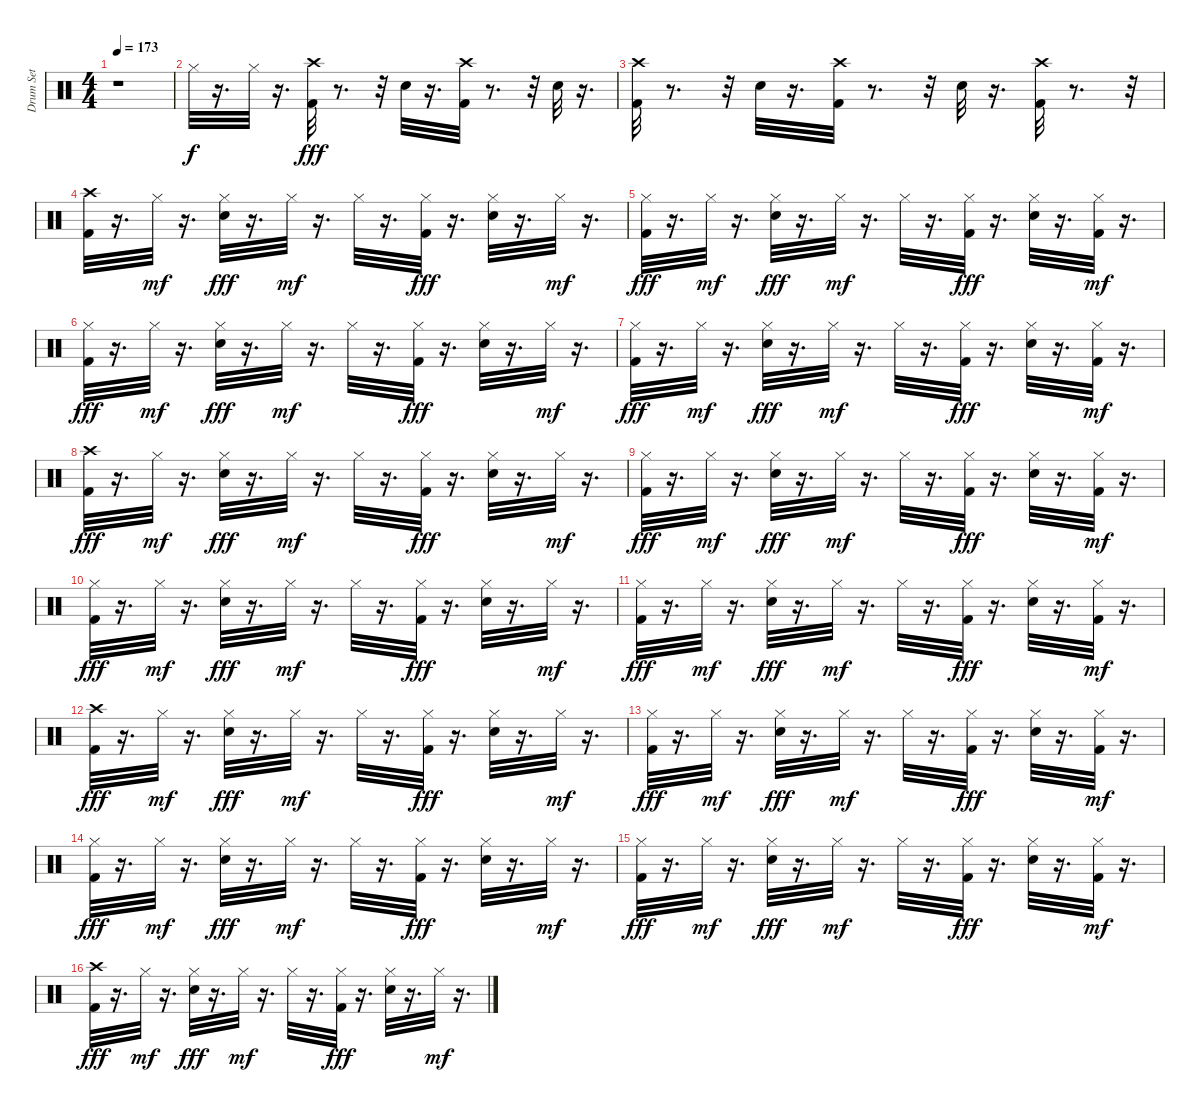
\track ("Drum Set" "Drum Set") {instrument percussion}
\staff {score}
\articulation defaults
\ts (4 4)
\tempo 173
\clef neutral
\ks c
r.1{dy fff} |
"Hi-Hat (closed)".32{dy f} r.16{d} "Hi-Hat (closed)".32 r.16{d} ("Crash high (hit)" "Kick (hit) 2").32{dy fff} r.8{d} r.32 "Electric Snare (hit)".32 r.16{d} ("Crash high (hit)" "Kick (hit) 2").32 r.8{d} r.32 "Electric Snare (hit)".32 r.16{d} |
("Crash high (hit)" "Kick (hit) 2").32 r.8{d} r.32 "Electric Snare (hit)".32 r.16{d} ("Crash high (hit)" "Kick (hit) 2").32 r.8{d} r.32 "Electric Snare (hit)".32 r.16{d} ("Crash high (hit)" "Kick (hit) 2").32 r.8{d} r.32 |
("Crash high (hit)" "Kick (hit) 2").32 r.16{d} "Hi-Hat (closed)".32{dy mf} r.16{d} ("Hi-Hat (closed)" "Electric Snare (hit)").32{dy fff} r.16{d} "Hi-Hat (closed)".32{dy mf} r.16{d} "Hi-Hat (closed)".32 r.16{d} ("Hi-Hat (closed)" "Kick (hit) 2").32{dy fff} r.16{d} ("Hi-Hat (closed)" "Electric Snare (hit)").32 r.16{d} "Hi-Hat (closed)".32{dy mf} r.16{d} |
("Hi-Hat (closed)" "Kick (hit) 2").32{dy fff} r.16{d} "Hi-Hat (closed)".32{dy mf} r.16{d} ("Hi-Hat (closed)" "Electric Snare (hit)").32{dy fff} r.16{d} "Hi-Hat (closed)".32{dy mf} r.16{d} "Hi-Hat (closed)".32 r.16{d} ("Hi-Hat (closed)" "Kick (hit) 2").32{dy fff} r.16{d} ("Hi-Hat (closed)" "Electric Snare (hit)").32 r.16{d} ("Kick (hit) 2" "Hi-Hat (closed)").32{dy mf} r.16{d} |
("Hi-Hat (closed)" "Kick (hit) 2").32{dy fff} r.16{d} "Hi-Hat (closed)".32{dy mf} r.16{d} ("Hi-Hat (closed)" "Electric Snare (hit)").32{dy fff} r.16{d} "Hi-Hat (closed)".32{dy mf} r.16{d} "Hi-Hat (closed)".32 r.16{d} ("Hi-Hat (closed)" "Kick (hit) 2").32{dy fff} r.16{d} ("Hi-Hat (closed)" "Electric Snare (hit)").32 r.16{d} "Hi-Hat (closed)".32{dy mf} r.16{d} |
("Hi-Hat (closed)" "Kick (hit) 2").32{dy fff} r.16{d} "Hi-Hat (closed)".32{dy mf} r.16{d} ("Hi-Hat (closed)" "Electric Snare (hit)").32{dy fff} r.16{d} "Hi-Hat (closed)".32{dy mf} r.16{d} "Hi-Hat (closed)".32 r.16{d} ("Hi-Hat (closed)" "Kick (hit) 2").32{dy fff} r.16{d} ("Hi-Hat (closed)" "Electric Snare (hit)").32 r.16{d} ("Kick (hit) 2" "Hi-Hat (closed)").32{dy mf} r.16{d} |
("Crash high (hit)" "Kick (hit) 2").32{dy fff} r.16{d} "Hi-Hat (closed)".32{dy mf} r.16{d} ("Hi-Hat (closed)" "Electric Snare (hit)").32{dy fff} r.16{d} "Hi-Hat (closed)".32{dy mf} r.16{d} "Hi-Hat (closed)".32 r.16{d} ("Hi-Hat (closed)" "Kick (hit) 2").32{dy fff} r.16{d} ("Hi-Hat (closed)" "Electric Snare (hit)").32 r.16{d} "Hi-Hat (closed)".32{dy mf} r.16{d} |
("Hi-Hat (closed)" "Kick (hit) 2").32{dy fff} r.16{d} "Hi-Hat (closed)".32{dy mf} r.16{d} ("Hi-Hat (closed)" "Electric Snare (hit)").32{dy fff} r.16{d} "Hi-Hat (closed)".32{dy mf} r.16{d} "Hi-Hat (closed)".32 r.16{d} ("Hi-Hat (closed)" "Kick (hit) 2").32{dy fff} r.16{d} ("Hi-Hat (closed)" "Electric Snare (hit)").32 r.16{d} ("Kick (hit) 2" "Hi-Hat (closed)").32{dy mf} r.16{d} |
("Hi-Hat (closed)" "Kick (hit) 2").32{dy fff} r.16{d} "Hi-Hat (closed)".32{dy mf} r.16{d} ("Hi-Hat (closed)" "Electric Snare (hit)").32{dy fff} r.16{d} "Hi-Hat (closed)".32{dy mf} r.16{d} "Hi-Hat (closed)".32 r.16{d} ("Hi-Hat (closed)" "Kick (hit) 2").32{dy fff} r.16{d} ("Hi-Hat (closed)" "Electric Snare (hit)").32 r.16{d} "Hi-Hat (closed)".32{dy mf} r.16{d} |
("Hi-Hat (closed)" "Kick (hit) 2").32{dy fff} r.16{d} "Hi-Hat (closed)".32{dy mf} r.16{d} ("Hi-Hat (closed)" "Electric Snare (hit)").32{dy fff} r.16{d} "Hi-Hat (closed)".32{dy mf} r.16{d} "Hi-Hat (closed)".32 r.16{d} ("Hi-Hat (closed)" "Kick (hit) 2").32{dy fff} r.16{d} ("Hi-Hat (closed)" "Electric Snare (hit)").32 r.16{d} ("Kick (hit) 2" "Hi-Hat (closed)").32{dy mf} r.16{d} |
("Crash high (hit)" "Kick (hit) 2").32{dy fff} r.16{d} "Hi-Hat (closed)".32{dy mf} r.16{d} ("Hi-Hat (closed)" "Electric Snare (hit)").32{dy fff} r.16{d} "Hi-Hat (closed)".32{dy mf} r.16{d} "Hi-Hat (closed)".32 r.16{d} ("Hi-Hat (closed)" "Kick (hit) 2").32{dy fff} r.16{d} ("Hi-Hat (closed)" "Electric Snare (hit)").32 r.16{d} "Hi-Hat (closed)".32{dy mf} r.16{d} |
("Hi-Hat (closed)" "Kick (hit) 2").32{dy fff} r.16{d} "Hi-Hat (closed)".32{dy mf} r.16{d} ("Hi-Hat (closed)" "Electric Snare (hit)").32{dy fff} r.16{d} "Hi-Hat (closed)".32{dy mf} r.16{d} "Hi-Hat (closed)".32 r.16{d} ("Hi-Hat (closed)" "Kick (hit) 2").32{dy fff} r.16{d} ("Hi-Hat (closed)" "Electric Snare (hit)").32 r.16{d} ("Kick (hit) 2" "Hi-Hat (closed)").32{dy mf} r.16{d} |
("Hi-Hat (closed)" "Kick (hit) 2").32{dy fff} r.16{d} "Hi-Hat (closed)".32{dy mf} r.16{d} ("Hi-Hat (closed)" "Electric Snare (hit)").32{dy fff} r.16{d} "Hi-Hat (closed)".32{dy mf} r.16{d} "Hi-Hat (closed)".32 r.16{d} ("Hi-Hat (closed)" "Kick (hit) 2").32{dy fff} r.16{d} ("Hi-Hat (closed)" "Electric Snare (hit)").32 r.16{d} "Hi-Hat (closed)".32{dy mf} r.16{d} |
("Hi-Hat (closed)" "Kick (hit) 2").32{dy fff} r.16{d} "Hi-Hat (closed)".32{dy mf} r.16{d} ("Hi-Hat (closed)" "Electric Snare (hit)").32{dy fff} r.16{d} "Hi-Hat (closed)".32{dy mf} r.16{d} "Hi-Hat (closed)".32 r.16{d} ("Hi-Hat (closed)" "Kick (hit) 2").32{dy fff} r.16{d} ("Hi-Hat (closed)" "Electric Snare (hit)").32 r.16{d} ("Kick (hit) 2" "Hi-Hat (closed)").32{dy mf} r.16{d} |
("Crash high (hit)" "Kick (hit) 2").32{dy fff} r.16{d} "Hi-Hat (closed)".32{dy mf} r.16{d} ("Hi-Hat (closed)" "Electric Snare (hit)").32{dy fff} r.16{d} "Hi-Hat (closed)".32{dy mf} r.16{d} "Hi-Hat (closed)".32 r.16{d} ("Hi-Hat (closed)" "Kick (hit) 2").32{dy fff} r.16{d} ("Hi-Hat (closed)" "Electric Snare (hit)").32 r.16{d} "Hi-Hat (closed)".32{dy mf} r.16{d}
